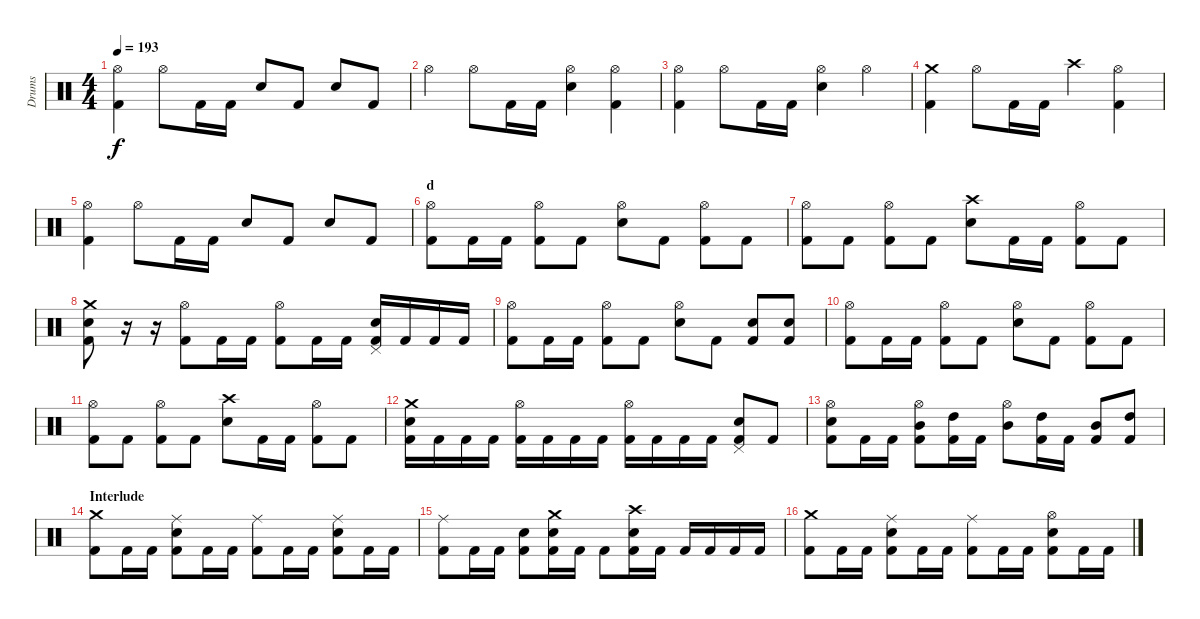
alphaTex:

\track ("Drums" "Drums") {instrument percussion}
\staff {score}
\articulation defaults
\ts (4 4)
\tempo 193
\clef neutral
\ks c
("Hi-Hat (open)" "Kick (hit) 2").4{dy f} "Hi-Hat (open)".8 "Kick (hit) 2".16 "Kick (hit) 2".16 "Snare (hit) 2".8 "Kick (hit) 2".8 "Snare (hit) 2".8 "Kick (hit) 2".8 |
"Hi-Hat (open)".4 "Hi-Hat (open)".8 "Kick (hit) 2".16 "Kick (hit) 2".16 ("Hi-Hat (open)" "Snare (hit) 2").4 ("Hi-Hat (open)" "Kick (hit) 2").4 |
("Hi-Hat (open)" "Kick (hit) 2").4 "Hi-Hat (open)".8 "Kick (hit) 2".16 "Kick (hit) 2".16 ("Hi-Hat (open)" "Snare (hit) 2").4 "Hi-Hat (open)".4 |
("Crash medium (hit)" "Kick (hit) 2").4 "Hi-Hat (open)".8 "Kick (hit) 2".16 "Kick (hit) 2".16 "Crash high (hit)".4 ("Hi-Hat (open)" "Kick (hit) 2").4 |
("Hi-Hat (open)" "Kick (hit) 2").4 "Hi-Hat (open)".8 "Kick (hit) 2".16 "Kick (hit) 2".16 "Snare (hit) 2".8 "Kick (hit) 2".8 "Snare (hit) 2".8 "Kick (hit) 2".8 |
\section ("" "d")
("Hi-Hat (open)" "Kick (hit) 2").8 "Kick (hit) 2".16 "Kick (hit) 2".16 ("Hi-Hat (open)" "Kick (hit) 2").8 "Kick (hit) 2".8 ("Hi-Hat (open)" "Snare (hit) 2").8 "Kick (hit) 2".8 ("Hi-Hat (open)" "Kick (hit) 2").8 "Kick (hit) 2".8 |
("Hi-Hat (open)" "Kick (hit) 2").8 "Kick (hit) 2".8 ("Hi-Hat (open)" "Kick (hit) 2").8 "Kick (hit) 2".8 ("Crash high (hit)" "Snare (hit) 2").8 "Kick (hit) 2".16 "Kick (hit) 2".16 ("Hi-Hat (open)" "Kick (hit) 2").8 "Kick (hit) 2".8 |
("Crash medium (hit)" "Snare (hit) 2" "Kick (hit) 2").8 r.16 r.16 ("Hi-Hat (open)" "Kick (hit) 2").8 "Kick (hit) 2".16 "Kick (hit) 2".16 ("Hi-Hat (open)" "Kick (hit) 2").8 "Kick (hit) 2".16 "Kick (hit) 2".16 ("Pedal Hi-Hat (hit)" "Snare (hit) 2" "Kick (hit) 2").16 "Kick (hit) 2".16 "Kick (hit) 2".16 "Kick (hit) 2".16 |
("Hi-Hat (open)" "Kick (hit) 2").8 "Kick (hit) 2".16 "Kick (hit) 2".16 ("Hi-Hat (open)" "Kick (hit) 2").8 "Kick (hit) 2".8 ("Hi-Hat (open)" "Snare (hit) 2").8 "Kick (hit) 2".8 ("Snare (hit) 2" "Kick (hit) 2").8 ("Snare (hit) 2" "Kick (hit) 2").8 |
("Hi-Hat (open)" "Kick (hit) 2").8 "Kick (hit) 2".16 "Kick (hit) 2".16 ("Hi-Hat (open)" "Kick (hit) 2").8 "Kick (hit) 2".8 ("Hi-Hat (open)" "Snare (hit) 2").8 "Kick (hit) 2".8 ("Hi-Hat (open)" "Kick (hit) 2").8 "Kick (hit) 2".8 |
("Hi-Hat (open)" "Kick (hit) 2").8 "Kick (hit) 2".8 ("Hi-Hat (open)" "Kick (hit) 2").8 "Kick (hit) 2".8 ("Crash high (hit)" "Snare (hit) 2").8 "Kick (hit) 2".16 "Kick (hit) 2".16 ("Hi-Hat (open)" "Kick (hit) 2").8 "Kick (hit) 2".8 |
("Crash medium (hit)" "Snare (hit) 2" "Kick (hit) 2").16 "Kick (hit) 2".16 "Kick (hit) 2".16 "Kick (hit) 2".16 ("Hi-Hat (open)" "Kick (hit) 2").16 "Kick (hit) 2".16 "Kick (hit) 2".16 "Kick (hit) 2".16 ("Hi-Hat (open)" "Kick (hit) 2").16 "Kick (hit) 2".16 "Kick (hit) 2".16 "Kick (hit) 2".16 ("Pedal Hi-Hat (hit)" "Snare (hit) 2" "Kick (hit) 2").8 "Kick (hit) 2".8 |
("Hi-Hat (open)" "Snare (hit) 2" "Kick (hit) 2").8 "Kick (hit) 2".16 "Kick (hit) 2".16 ("Mid Tom (hit)" "Hi-Hat (open)" "Kick (hit) 2").8 ("High Tom (hit)" "Kick (hit) 2").16 "Kick (hit) 2".16 ("Mid Tom (hit)" "Hi-Hat (open)").8 ("High Tom (hit)" "Kick (hit) 2").16 "Kick (hit) 2".16 ("Mid Tom (hit)" "Kick (hit) 2").8 ("High Tom (hit)" "Kick (hit) 2").8 |
\section ("" "Interlude")
("Crash medium (hit)" "Kick (hit) 2").8 "Kick (hit) 2".16 "Kick (hit) 2".16 ("Ride (middle)" "Snare (hit) 2" "Kick (hit) 2").8 "Kick (hit) 2".16 "Kick (hit) 2".16 ("Ride (middle)" "Kick (hit) 2").8 "Kick (hit) 2".16 "Kick (hit) 2".16 ("Ride (middle)" "Snare (hit) 2" "Kick (hit) 2").8 "Kick (hit) 2".16 "Kick (hit) 2".16 |
("Ride (middle)" "Kick (hit) 2").8 "Kick (hit) 2".16 "Kick (hit) 2".16 ("Snare (hit) 2" "Kick (hit) 2").8 ("Crash medium (hit)" "Snare (hit) 2" "Kick (hit) 2").16 "Kick (hit) 2".16 "Kick (hit) 2".8 ("Crash high (hit)" "Snare (hit) 2" "Kick (hit) 2").16 "Kick (hit) 2".16 "Kick (hit) 2".16 "Kick (hit) 2".16 "Kick (hit) 2".16 "Kick (hit) 2".16 |
("Crash medium (hit)" "Kick (hit) 2").8 "Kick (hit) 2".16 "Kick (hit) 2".16 ("Ride (middle)" "Snare (hit) 2" "Kick (hit) 2").8 "Kick (hit) 2".16 "Kick (hit) 2".16 ("Ride (middle)" "Kick (hit) 2").8 "Kick (hit) 2".16 "Kick (hit) 2".16 ("Hi-Hat (open)" "Snare (hit) 2" "Kick (hit) 2").8 "Kick (hit) 2".16 "Kick (hit) 2".16
